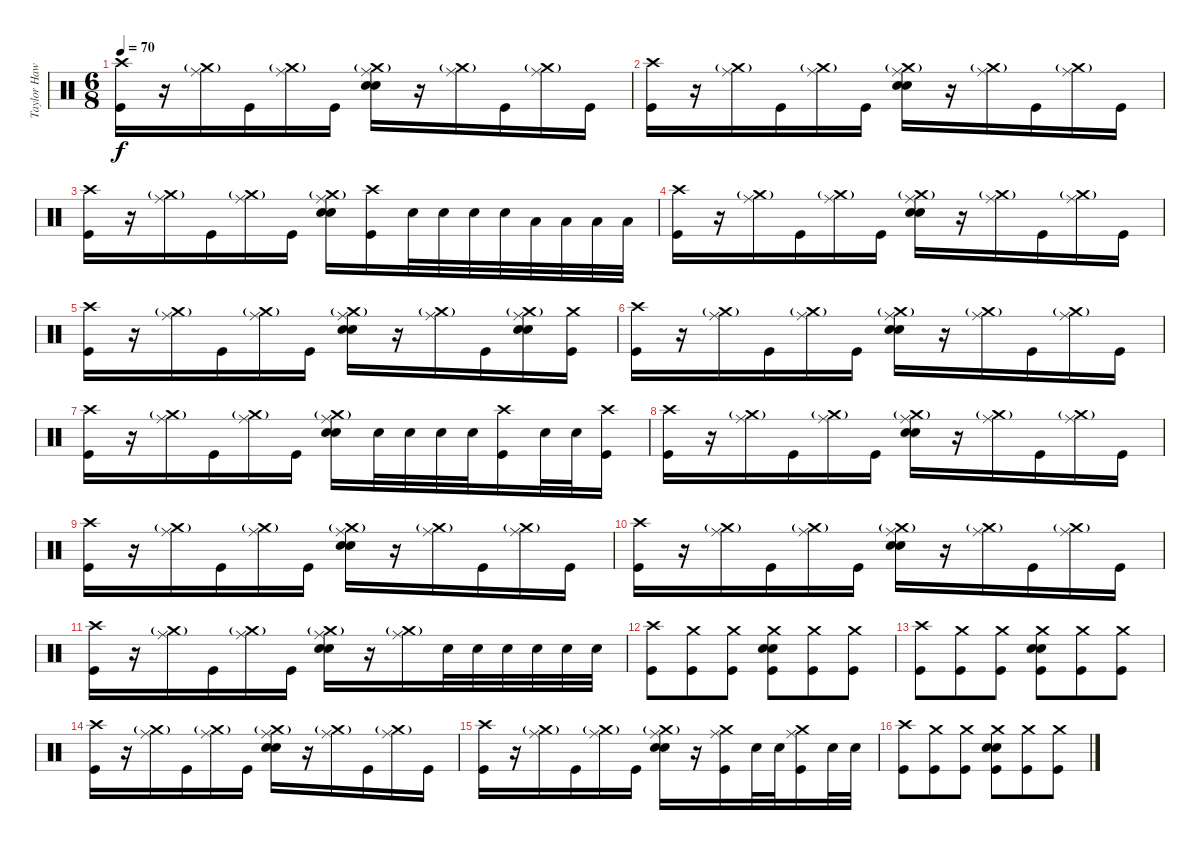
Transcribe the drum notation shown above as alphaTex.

\track ("Taylor Hawkins - Drums" "Taylor Haw") {instrument percussion}
\staff {score}
\articulation defaults
\ts (6 8)
\tempo 70
\clef neutral
\ks c
("Crash high (hit)" "Kick (hit)").16{dy f} r.16 ("Crash medium (hit)"{g} "Ride (middle)").16 "Kick (hit)".16 ("Crash medium (hit)"{g} "Ride (middle)").16 "Kick (hit)".16 ("Crash medium (hit)"{g} "Ride (middle)" "Electric Snare (hit)" "Snare (hit) 2").16 r.16 ("Crash medium (hit)"{g} "Ride (middle)").16 "Kick (hit)".16 ("Crash medium (hit)"{g} "Ride (middle)").16 "Kick (hit)".16 |
("Crash high (hit)" "Kick (hit)").16 r.16 ("Crash medium (hit)"{g} "Ride (middle)").16 "Kick (hit)".16 ("Crash medium (hit)"{g} "Ride (middle)").16 "Kick (hit)".16 ("Crash medium (hit)"{g} "Ride (middle)" "Electric Snare (hit)" "Snare (hit) 2").16 r.16 ("Crash medium (hit)"{g} "Ride (middle)").16 "Kick (hit)".16 ("Crash medium (hit)"{g} "Ride (middle)").16 "Kick (hit)".16 |
("Crash high (hit)" "Kick (hit)").16 r.16 ("Crash medium (hit)"{g} "Ride (middle)").16 "Kick (hit)".16 ("Crash medium (hit)"{g} "Ride (middle)").16 "Kick (hit)".16 ("Crash medium (hit)"{g} "Ride (middle)" "Electric Snare (hit)" "Snare (hit) 2").16 ("Crash high (hit)" "Kick (hit)").16 "Electric Snare (hit)".32 "Electric Snare (hit)".32 "Electric Snare (hit)".32 "Electric Snare (hit)".32 "Low Tom (hit)".32 "Low Tom (hit)".32 "Low Tom (hit)".32 "Low Tom (hit)".32 |
("Crash high (hit)" "Kick (hit)").16 r.16 ("Crash medium (hit)"{g} "Ride (middle)").16 "Kick (hit)".16 ("Crash medium (hit)"{g} "Ride (middle)").16 "Kick (hit)".16 ("Crash medium (hit)"{g} "Ride (middle)" "Electric Snare (hit)" "Snare (hit) 2").16 r.16 ("Crash medium (hit)"{g} "Ride (middle)").16 "Kick (hit)".16 ("Crash medium (hit)"{g} "Ride (middle)").16 "Kick (hit)".16 |
("Crash high (hit)" "Kick (hit)").16 r.16 ("Crash medium (hit)"{g} "Ride (middle)").16 "Kick (hit)".16 ("Crash medium (hit)"{g} "Ride (middle)").16 "Kick (hit)".16 ("Crash medium (hit)"{g} "Ride (middle)" "Electric Snare (hit)" "Snare (hit) 2").16 r.16 ("Crash medium (hit)"{g} "Ride (middle)").16 "Kick (hit)".16 ("Crash medium (hit)"{g} "Ride (middle)" "Electric Snare (hit)" "Snare (hit) 2").16 ("Crash medium (hit)" "Kick (hit)").16 |
("Crash high (hit)" "Kick (hit)").16 r.16 ("Crash medium (hit)"{g} "Ride (middle)").16 "Kick (hit)".16 ("Crash medium (hit)"{g} "Ride (middle)").16 "Kick (hit)".16 ("Crash medium (hit)"{g} "Ride (middle)" "Electric Snare (hit)" "Snare (hit) 2").16 r.16 ("Crash medium (hit)"{g} "Ride (middle)").16 "Kick (hit)".16 ("Crash medium (hit)"{g} "Ride (middle)").16 "Kick (hit)".16 |
("Crash high (hit)" "Kick (hit)").16 r.16 ("Crash medium (hit)"{g} "Ride (middle)").16 "Kick (hit)".16 ("Crash medium (hit)"{g} "Ride (middle)").16 "Kick (hit)".16 ("Crash medium (hit)"{g} "Ride (middle)" "Electric Snare (hit)" "Snare (hit) 2").16 "Electric Snare (hit)".32 "Electric Snare (hit)".32 "Electric Snare (hit)".32 "Electric Snare (hit)".32 ("Crash high (hit)" "Kick (hit)").16 "Electric Snare (hit)".32 "Electric Snare (hit)".32 ("Crash high (hit)" "Kick (hit)").16 |
("Crash high (hit)" "Kick (hit)").16 r.16 ("Crash medium (hit)"{g} "Ride (middle)").16 "Kick (hit)".16 ("Crash medium (hit)"{g} "Ride (middle)").16 "Kick (hit)".16 ("Crash medium (hit)"{g} "Ride (middle)" "Electric Snare (hit)" "Snare (hit) 2").16 r.16 ("Crash medium (hit)"{g} "Ride (middle)").16 "Kick (hit)".16 ("Crash medium (hit)"{g} "Ride (middle)").16 "Kick (hit)".16 |
("Crash high (hit)" "Kick (hit)").16 r.16 ("Crash medium (hit)"{g} "Ride (middle)").16 "Kick (hit)".16 ("Crash medium (hit)"{g} "Ride (middle)").16 "Kick (hit)".16 ("Crash medium (hit)"{g} "Ride (middle)" "Electric Snare (hit)" "Snare (hit) 2").16 r.16 ("Crash medium (hit)"{g} "Ride (middle)").16 "Kick (hit)".16 ("Crash medium (hit)"{g} "Ride (middle)").16 "Kick (hit)".16 |
("Crash high (hit)" "Kick (hit)").16 r.16 ("Crash medium (hit)"{g} "Ride (middle)").16 "Kick (hit)".16 ("Crash medium (hit)"{g} "Ride (middle)").16 "Kick (hit)".16 ("Crash medium (hit)"{g} "Ride (middle)" "Electric Snare (hit)" "Snare (hit) 2").16 r.16 ("Crash medium (hit)"{g} "Ride (middle)").16 "Kick (hit)".16 ("Crash medium (hit)"{g} "Ride (middle)").16 "Kick (hit)".16 |
("Crash high (hit)" "Kick (hit)").16 r.16 ("Crash medium (hit)"{g} "Ride (middle)").16 "Kick (hit)".16 ("Crash medium (hit)"{g} "Ride (middle)").16 "Kick (hit)".16 ("Crash medium (hit)"{g} "Ride (middle)" "Electric Snare (hit)" "Snare (hit) 2").16 r.16 ("Crash medium (hit)"{g} "Ride (middle)").16 "Electric Snare (hit)".32 "Electric Snare (hit)".32 "Electric Snare (hit)".32 "Electric Snare (hit)".32 "Electric Snare (hit)".32 "Electric Snare (hit)".32 |
("Crash high (hit)" "Kick (hit)").8 ("Crash medium (hit)" "Kick (hit)").8 ("Crash medium (hit)" "Kick (hit)").8 ("Crash medium (hit)" "Electric Snare (hit)" "Snare (hit) 2" "Kick (hit)").8 ("Crash medium (hit)" "Kick (hit)").8 ("Crash medium (hit)" "Kick (hit)").8 |
("Crash high (hit)" "Kick (hit)").8 ("Crash medium (hit)" "Kick (hit)").8 ("Crash medium (hit)" "Kick (hit)").8 ("Crash medium (hit)" "Electric Snare (hit)" "Snare (hit) 2" "Kick (hit)").8 ("Crash medium (hit)" "Kick (hit)").8 ("Crash medium (hit)" "Kick (hit)").8 |
("Crash high (hit)" "Kick (hit)").16 r.16 ("Crash medium (hit)"{g} "Ride (middle)").16 "Kick (hit)".16 ("Crash medium (hit)"{g} "Ride (middle)").16 "Kick (hit)".16 ("Crash medium (hit)"{g} "Ride (middle)" "Electric Snare (hit)" "Snare (hit) 2").16 r.16 ("Crash medium (hit)"{g} "Ride (middle)").16 "Kick (hit)".16 ("Crash medium (hit)"{g} "Ride (middle)").16 "Kick (hit)".16 |
("Crash high (hit)" "Kick (hit)").16 r.16 ("Crash medium (hit)"{g} "Ride (middle)").16 "Kick (hit)".16 ("Crash medium (hit)"{g} "Ride (middle)").16 "Kick (hit)".16 ("Crash medium (hit)"{g} "Ride (middle)" "Electric Snare (hit)" "Snare (hit) 2").16 r.16 ("Crash medium (hit)" "Ride (middle)" "Kick (hit)").16 "Electric Snare (hit)".32 "Electric Snare (hit)".32 ("Crash medium (hit)" "Ride (middle)" "Kick (hit)").16 "Electric Snare (hit)".32 "Electric Snare (hit)".32 |
("Crash high (hit)" "Kick (hit)").8 ("Crash medium (hit)" "Kick (hit)").8 ("Crash medium (hit)" "Kick (hit)").8 ("Crash medium (hit)" "Electric Snare (hit)" "Snare (hit) 2" "Kick (hit)").8 ("Crash medium (hit)" "Kick (hit)").8 ("Crash medium (hit)" "Kick (hit)").8
